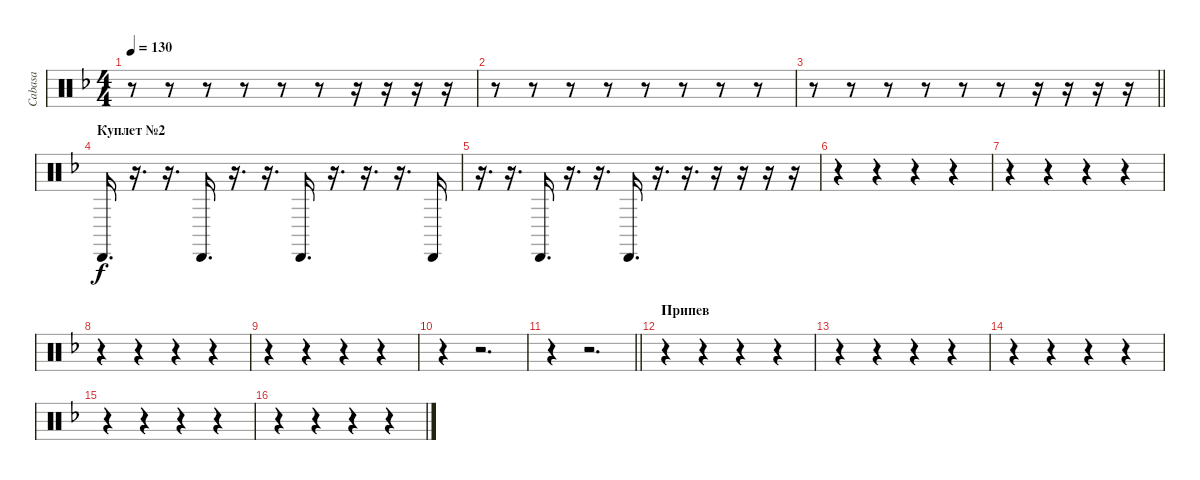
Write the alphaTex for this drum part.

\track ("Cabasa" "Cabasa") {instrument percussion}
\staff {score}
\articulation defaults
\ts (4 4)
\tempo 130
\clef neutral
\ks f
r.8{dy f} r.8 r.8 r.8 r.8 r.8 r.16 r.16 r.16 r.16 |
r.8 r.8 r.8 r.8 r.8 r.8 r.8 r.8 |
\barLineRight lightlight
r.8 r.8 r.8 r.8 r.8 r.8 r.16 r.16 r.16 r.16 |
\section ("" "Куплет №2")
"Cabasa (hit)".16{d} r.16{d} r.16{d} "Cabasa (hit)".16{d} r.16{d} r.16{d} "Cabasa (hit)".16{d} r.16{d} r.16{d} r.16{d} "Cabasa (hit)".16 |
r.16{d} r.16{d} "Cabasa (hit)".16{d} r.16{d} r.16{d} "Cabasa (hit)".16{d} r.16{d} r.16{d} r.16 r.16 r.16 r.16 |
r.4 r.4 r.4 r.4 |
r.4 r.4 r.4 r.4 |
r.4 r.4 r.4 r.4 |
r.4 r.4 r.4 r.4 |
r.4 r.2{d} |
\barLineRight lightlight
r.4 r.2{d} |
\section ("" "Припев")
r.4 r.4 r.4 r.4 |
r.4 r.4 r.4 r.4 |
r.4 r.4 r.4 r.4 |
r.4 r.4 r.4 r.4 |
r.4 r.4 r.4 r.4
